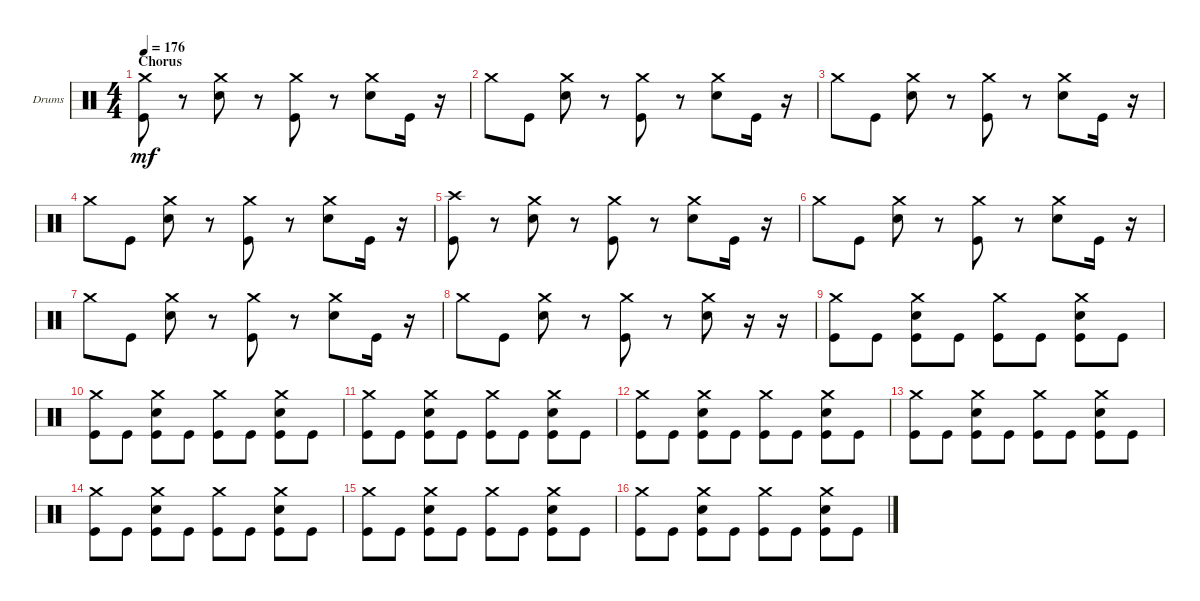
\bracketExtendMode groupsimilarinstruments
\firstSystemTrackNameOrientation horizontal
\otherSystemsTrackNameOrientation horizontal
\track ("Drums" "Drums") {instrument percussion}
\staff {score}
\articulation defaults
\ts (4 4)
\section ("" "Chorus")
\tempo 176
\clef neutral
\ks c
("Crash medium (hit)" "Kick (hit)").8{dy mf} r.8 ("Crash medium (hit)" "Snare (hit) 2").8 r.8 ("Crash medium (hit)" "Kick (hit)").8 r.8 ("Crash medium (hit)" "Snare (hit) 2").8 "Kick (hit)".16 r.16 |
"Crash medium (hit)".8 "Kick (hit)".8 ("Crash medium (hit)" "Snare (hit) 2").8 r.8 ("Crash medium (hit)" "Kick (hit)").8 r.8 ("Crash medium (hit)" "Snare (hit) 2").8 "Kick (hit)".16 r.16 |
"Crash medium (hit)".8 "Kick (hit)".8 ("Crash medium (hit)" "Snare (hit) 2").8 r.8 ("Crash medium (hit)" "Kick (hit)").8 r.8 ("Crash medium (hit)" "Snare (hit) 2").8 "Kick (hit)".16 r.16 |
"Crash medium (hit)".8 "Kick (hit)".8 ("Crash medium (hit)" "Snare (hit) 2").8 r.8 ("Crash medium (hit)" "Kick (hit)").8 r.8 ("Crash medium (hit)" "Snare (hit) 2").8 "Kick (hit)".16 r.16 |
("Kick (hit)" "Crash high (hit)").8 r.8 ("Crash medium (hit)" "Snare (hit) 2").8 r.8 ("Crash medium (hit)" "Kick (hit)").8 r.8 ("Crash medium (hit)" "Snare (hit) 2").8 "Kick (hit)".16 r.16 |
"Crash medium (hit)".8 "Kick (hit)".8 ("Crash medium (hit)" "Snare (hit) 2").8 r.8 ("Crash medium (hit)" "Kick (hit)").8 r.8 ("Crash medium (hit)" "Snare (hit) 2").8 "Kick (hit)".16 r.16 |
"Crash medium (hit)".8 "Kick (hit)".8 ("Crash medium (hit)" "Snare (hit) 2").8 r.8 ("Crash medium (hit)" "Kick (hit)").8 r.8 ("Crash medium (hit)" "Snare (hit) 2").8 "Kick (hit)".16 r.16 |
"Crash medium (hit)".8 "Kick (hit)".8 ("Crash medium (hit)" "Snare (hit) 2").8 r.8 ("Crash medium (hit)" "Kick (hit)").8 r.8 ("Crash medium (hit)" "Snare (hit) 2").8 r.16 r.16 |
("Crash medium (hit)" "Kick (hit)").8 "Kick (hit)".8 ("Crash medium (hit)" "Snare (hit) 2" "Kick (hit)").8 "Kick (hit)".8 ("Crash medium (hit)" "Kick (hit)").8 "Kick (hit)".8 ("Crash medium (hit)" "Snare (hit) 2" "Kick (hit)").8 "Kick (hit)".8 |
("Crash medium (hit)" "Kick (hit)").8 "Kick (hit)".8 ("Crash medium (hit)" "Snare (hit) 2" "Kick (hit)").8 "Kick (hit)".8 ("Crash medium (hit)" "Kick (hit)").8 "Kick (hit)".8 ("Crash medium (hit)" "Snare (hit) 2" "Kick (hit)").8 "Kick (hit)".8 |
("Crash medium (hit)" "Kick (hit)").8 "Kick (hit)".8 ("Crash medium (hit)" "Snare (hit) 2" "Kick (hit)").8 "Kick (hit)".8 ("Crash medium (hit)" "Kick (hit)").8 "Kick (hit)".8 ("Crash medium (hit)" "Snare (hit) 2" "Kick (hit)").8 "Kick (hit)".8 |
("Crash medium (hit)" "Kick (hit)").8 "Kick (hit)".8 ("Crash medium (hit)" "Snare (hit) 2" "Kick (hit)").8 "Kick (hit)".8 ("Crash medium (hit)" "Kick (hit)").8 "Kick (hit)".8 ("Crash medium (hit)" "Snare (hit) 2" "Kick (hit)").8 "Kick (hit)".8 |
("Crash medium (hit)" "Kick (hit)").8 "Kick (hit)".8 ("Crash medium (hit)" "Snare (hit) 2" "Kick (hit)").8 "Kick (hit)".8 ("Crash medium (hit)" "Kick (hit)").8 "Kick (hit)".8 ("Crash medium (hit)" "Snare (hit) 2" "Kick (hit)").8 "Kick (hit)".8 |
("Crash medium (hit)" "Kick (hit)").8 "Kick (hit)".8 ("Crash medium (hit)" "Snare (hit) 2" "Kick (hit)").8 "Kick (hit)".8 ("Crash medium (hit)" "Kick (hit)").8 "Kick (hit)".8 ("Crash medium (hit)" "Snare (hit) 2" "Kick (hit)").8 "Kick (hit)".8 |
("Crash medium (hit)" "Kick (hit)").8 "Kick (hit)".8 ("Crash medium (hit)" "Snare (hit) 2" "Kick (hit)").8 "Kick (hit)".8 ("Crash medium (hit)" "Kick (hit)").8 "Kick (hit)".8 ("Crash medium (hit)" "Snare (hit) 2" "Kick (hit)").8 "Kick (hit)".8 |
("Crash medium (hit)" "Kick (hit)").8 "Kick (hit)".8 ("Crash medium (hit)" "Snare (hit) 2" "Kick (hit)").8 "Kick (hit)".8 ("Crash medium (hit)" "Kick (hit)").8 "Kick (hit)".8 ("Crash medium (hit)" "Snare (hit) 2" "Kick (hit)").8 "Kick (hit)".8
